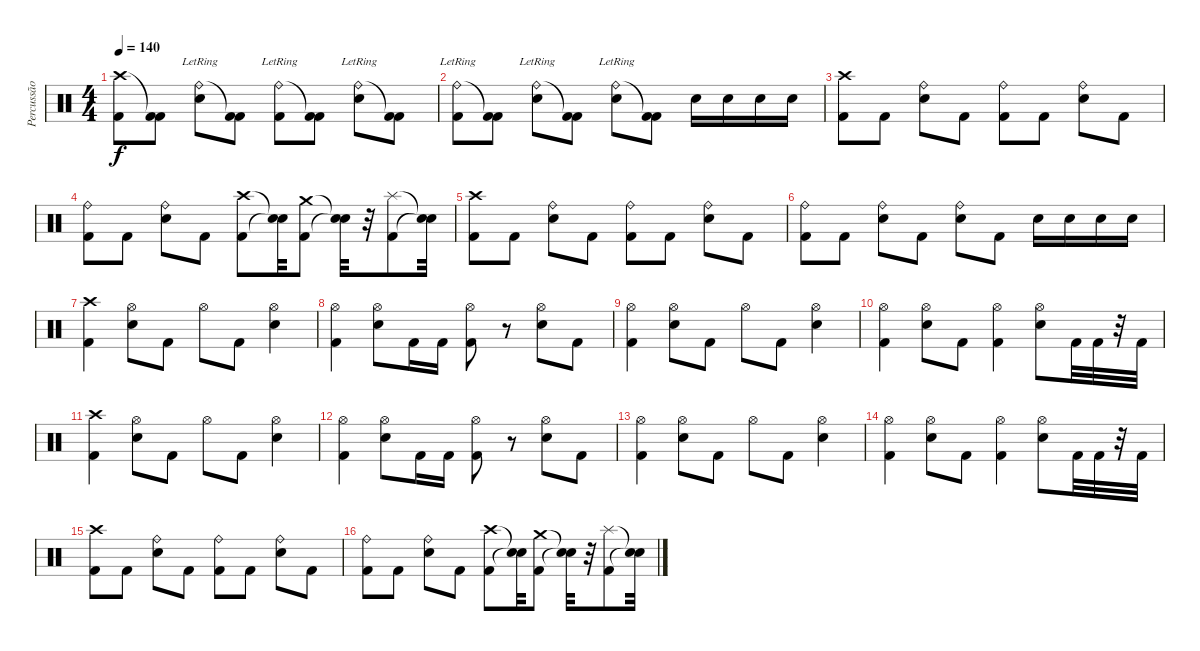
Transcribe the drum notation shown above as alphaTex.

\track ("Percussão" "Percussão") {instrument percussion}
\staff {score}
\articulation defaults
\ts (4 4)
\tempo 140
\clef neutral
\ks c
("Crash high (hit)" "Kick (hit) 2").8{dy f} ("Kick (hit) 2"{t} "Kick (hit) 2").8 ("Ride (bell)"{lr} "Electric Snare (hit)").8 ("Kick (hit) 2"{t} "Kick (hit) 2").8 ("Ride (bell)"{lr} "Kick (hit) 2").8 ("Kick (hit) 2"{t} "Kick (hit) 2").8 ("Ride (bell)"{lr} "Electric Snare (hit)").8 ("Kick (hit) 2"{t} "Kick (hit) 2").8 |
("Ride (bell)"{lr} "Kick (hit) 2").8 ("Kick (hit) 2"{t} "Kick (hit) 2").8 ("Ride (bell)"{lr} "Electric Snare (hit)").8 ("Kick (hit) 2"{t} "Kick (hit) 2").8 ("Ride (bell)"{lr} "Electric Snare (hit)").8 ("Kick (hit) 2"{t} "Kick (hit) 2").8 "Electric Snare (hit)".16 "Electric Snare (hit)".16 "Electric Snare (hit)".16 "Electric Snare (hit)".16 |
("Crash high (hit)" "Kick (hit) 2").8 "Kick (hit) 2".8 ("Ride (bell)" "Electric Snare (hit)").8 "Kick (hit) 2".8 ("Ride (bell)" "Kick (hit) 2").8 "Kick (hit) 2".8 ("Ride (bell)" "Electric Snare (hit)").8 "Kick (hit) 2".8 |
("Ride (bell)" "Kick (hit) 2").8 "Kick (hit) 2".8 ("Ride (bell)" "Electric Snare (hit)").8 "Kick (hit) 2".8 ("Crash high (hit)" "Kick (hit) 2").8 ("Snare (hit)"{t} "Snare (hit)"{t}).32 ("Crash medium (hit)" "Kick (hit) 2").8 ("Snare (hit)"{t} "Snare (hit)"{t}).32 r.32 ("Splash (hit)" "Kick (hit) 2").8 ("Snare (hit)"{t} "Snare (hit)"{t}).32 |
("Crash high (hit)" "Kick (hit) 2").8 "Kick (hit) 2".8 ("Ride (bell)" "Electric Snare (hit)").8 "Kick (hit) 2".8 ("Ride (bell)" "Kick (hit) 2").8 "Kick (hit) 2".8 ("Ride (bell)" "Electric Snare (hit)").8 "Kick (hit) 2".8 |
("Ride (bell)" "Kick (hit) 2").8 "Kick (hit) 2".8 ("Ride (bell)" "Electric Snare (hit)").8 "Kick (hit) 2".8 ("Ride (bell)" "Electric Snare (hit)").8 "Kick (hit) 2".8 "Electric Snare (hit)".16 "Electric Snare (hit)".16 "Electric Snare (hit)".16 "Electric Snare (hit)".16 |
("Crash high (hit)" "Kick (hit) 2").4 ("Hi-Hat (open)" "Electric Snare (hit)").8 "Kick (hit) 2".8 "Hi-Hat (open)".8 "Kick (hit) 2".8 ("Hi-Hat (open)" "Electric Snare (hit)").4 |
("Hi-Hat (open)" "Kick (hit) 2").4 ("Hi-Hat (open)" "Electric Snare (hit)").8 "Kick (hit) 2".16 "Kick (hit) 2".16 ("Hi-Hat (open)" "Kick (hit) 2").8 r.8 ("Hi-Hat (open)" "Electric Snare (hit)").8 "Kick (hit) 2".8 |
("Hi-Hat (open)" "Kick (hit) 2").4 ("Hi-Hat (open)" "Electric Snare (hit)").8 "Kick (hit) 2".8 "Hi-Hat (open)".8 "Kick (hit) 2".8 ("Hi-Hat (open)" "Electric Snare (hit)").4 |
("Hi-Hat (open)" "Kick (hit) 2").4 ("Hi-Hat (open)" "Electric Snare (hit)").8 "Kick (hit) 2".8 ("Hi-Hat (open)" "Kick (hit) 2").4 ("Hi-Hat (open)" "Electric Snare (hit)").8 "Kick (hit) 2".32 "Kick (hit) 2".32 r.32 "Kick (hit) 2".32 |
("Crash high (hit)" "Kick (hit) 2").4 ("Hi-Hat (open)" "Electric Snare (hit)").8 "Kick (hit) 2".8 "Hi-Hat (open)".8 "Kick (hit) 2".8 ("Hi-Hat (open)" "Electric Snare (hit)").4 |
("Hi-Hat (open)" "Kick (hit) 2").4 ("Hi-Hat (open)" "Electric Snare (hit)").8 "Kick (hit) 2".16 "Kick (hit) 2".16 ("Hi-Hat (open)" "Kick (hit) 2").8 r.8 ("Hi-Hat (open)" "Electric Snare (hit)").8 "Kick (hit) 2".8 |
("Hi-Hat (open)" "Kick (hit) 2").4 ("Hi-Hat (open)" "Electric Snare (hit)").8 "Kick (hit) 2".8 "Hi-Hat (open)".8 "Kick (hit) 2".8 ("Hi-Hat (open)" "Electric Snare (hit)").4 |
("Hi-Hat (open)" "Kick (hit) 2").4 ("Hi-Hat (open)" "Electric Snare (hit)").8 "Kick (hit) 2".8 ("Hi-Hat (open)" "Kick (hit) 2").4 ("Hi-Hat (open)" "Electric Snare (hit)").8 "Kick (hit) 2".32 "Kick (hit) 2".32 r.32 "Kick (hit) 2".32 |
("Crash high (hit)" "Kick (hit) 2").8 "Kick (hit) 2".8 ("Ride (bell)" "Electric Snare (hit)").8 "Kick (hit) 2".8 ("Ride (bell)" "Kick (hit) 2").8 "Kick (hit) 2".8 ("Ride (bell)" "Electric Snare (hit)").8 "Kick (hit) 2".8 |
("Ride (bell)" "Kick (hit) 2").8 "Kick (hit) 2".8 ("Ride (bell)" "Electric Snare (hit)").8 "Kick (hit) 2".8 ("Crash high (hit)" "Kick (hit) 2").8 ("Snare (hit)"{t} "Snare (hit)"{t}).32 ("Crash medium (hit)" "Kick (hit) 2").8 ("Snare (hit)"{t} "Snare (hit)"{t}).32 r.32 ("Splash (hit)" "Kick (hit) 2").8 ("Snare (hit)"{t} "Snare (hit)"{t}).32
